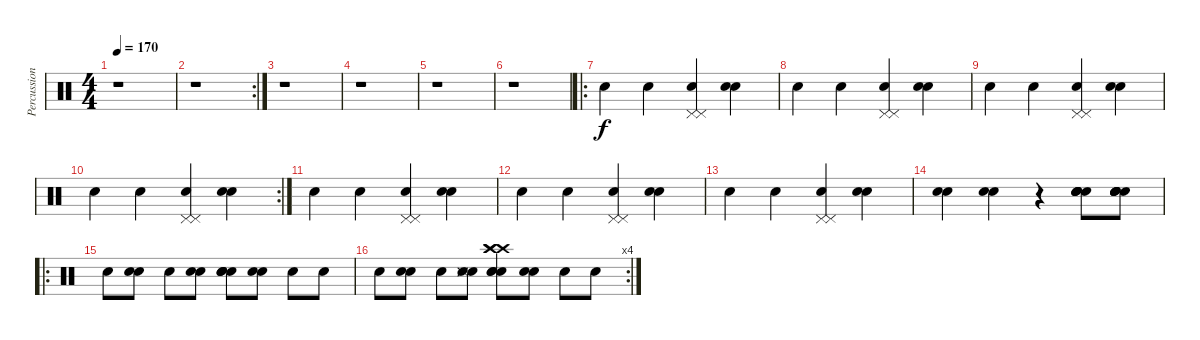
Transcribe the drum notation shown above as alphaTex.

\track ("Percussions" "Percussion") {instrument percussion}
\staff {score}
\articulation defaults
\ts (4 4)
\tempo 170
\clef neutral
\ks c
r.1{dy f} |
\rc 2
r.1 |
r.1 |
r.1 |
r.1 |
r.1 |
\ro "Snare (hit) 2".4 "Snare (hit) 2".4
("Snare (hit) 2" "Pedal Hi-Hat (hit)" "Pedal Hi-Hat (hit)").4 ("Snare (hit) 2" "Electric Snare (hit)").4 |
"Snare (hit) 2".4 "Snare (hit) 2".4 ("Snare (hit) 2" "Pedal Hi-Hat (hit)" "Pedal Hi-Hat (hit)").4 ("Snare (hit) 2" "Electric Snare (hit)").4 |
"Snare (hit) 2".4 "Snare (hit) 2".4 ("Snare (hit) 2" "Pedal Hi-Hat (hit)" "Pedal Hi-Hat (hit)").4 ("Snare (hit) 2" "Electric Snare (hit)").4 |
\rc 2 "Snare (hit) 2".4 "Snare (hit) 2".4
("Snare (hit) 2" "Pedal Hi-Hat (hit)" "Pedal Hi-Hat (hit)").4 ("Snare (hit) 2" "Electric Snare (hit)").4 |
"Snare (hit) 2".4 "Snare (hit) 2".4 ("Snare (hit) 2" "Pedal Hi-Hat (hit)" "Pedal Hi-Hat (hit)").4 ("Snare (hit) 2" "Electric Snare (hit)").4 |
"Snare (hit) 2".4 "Snare (hit) 2".4 ("Snare (hit) 2" "Pedal Hi-Hat (hit)" "Pedal Hi-Hat (hit)").4 ("Snare (hit) 2" "Electric Snare (hit)").4 |
"Snare (hit) 2".4 "Snare (hit) 2".4 ("Snare (hit) 2" "Pedal Hi-Hat (hit)" "Pedal Hi-Hat (hit)").4 ("Snare (hit) 2" "Electric Snare (hit)").4 |
("Snare (hit) 2" "Electric Snare (hit)").4 ("Snare (hit) 2" "Electric Snare (hit)").4 r.4 ("Snare (hit) 2" "Snare (hit) 2" "Snare (hit) 2" "Snare (hit) 2" "Electric Snare (hit)").8 ("Snare (hit) 2" "Snare (hit) 2" "Snare (hit) 2" "Snare (hit) 2" "Electric Snare (hit)").8 |
\ro "Snare (hit) 2".8
("Electric Snare (hit)" "Snare (hit) 2").8 "Snare (hit) 2".8 ("Electric Snare (hit)" "Snare (hit) 2").8 ("Electric Snare (hit)" "Electric Snare (hit)" "Electric Snare (hit)" "Snare (hit) 2").8 ("Electric Snare (hit)" "Snare (hit) 2").8 "Snare (hit) 2".8 "Snare (hit) 2".8 |
\rc 4 "Snare (hit) 2".8
("Electric Snare (hit)" "Snare (hit) 2").8 "Snare (hit) 2".8 ("Electric Snare (hit)" "Snare (hit) 2" "Snare (side stick) 3" "Snare (side stick) 3").8 ("Electric Snare (hit)" "Electric Snare (hit)" "Crash high (hit)" "Snare (hit) 2" "Crash high (hit)" "Crash high (hit)").8 ("Electric Snare (hit)" "Snare (hit) 2").8 "Snare (hit) 2".8 "Snare (hit) 2".8
